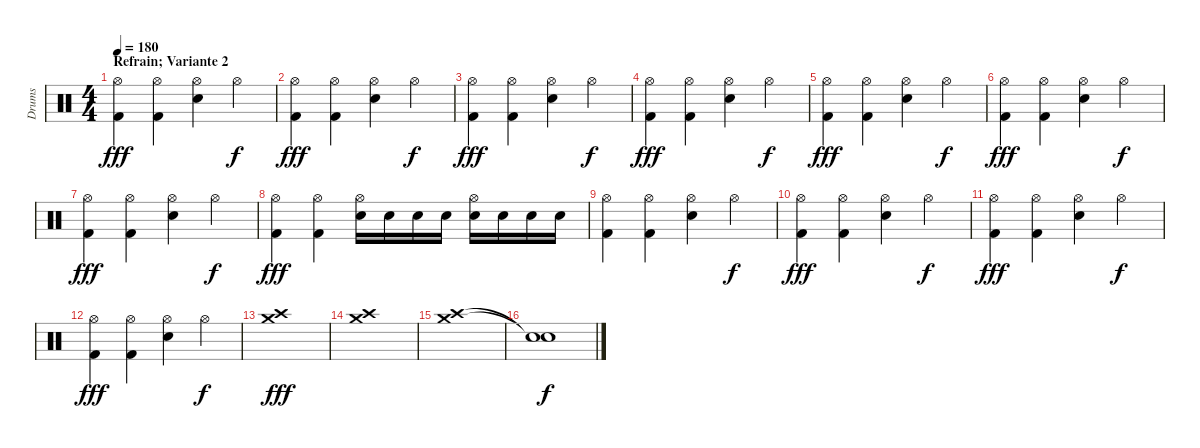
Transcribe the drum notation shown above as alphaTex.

\track ("Drums" "Drums") {instrument percussion}
\staff {score}
\articulation defaults
\ts (4 4)
\section ("" "Refrain; Variante 2")
\tempo 180
\clef neutral
\ks c
("Hi-Hat (open)" "Kick (hit) 2").4{dy fff} ("Hi-Hat (open)" "Kick (hit) 2").4 ("Hi-Hat (open)" "Electric Snare (hit)").4 "Hi-Hat (open)".4{dy f} |
("Hi-Hat (open)" "Kick (hit) 2").4{dy fff} ("Hi-Hat (open)" "Kick (hit) 2").4 ("Hi-Hat (open)" "Electric Snare (hit)").4 "Hi-Hat (open)".4{dy f} |
("Hi-Hat (open)" "Kick (hit) 2").4{dy fff} ("Hi-Hat (open)" "Kick (hit) 2").4 ("Hi-Hat (open)" "Electric Snare (hit)").4 "Hi-Hat (open)".4{dy f} |
("Hi-Hat (open)" "Kick (hit) 2").4{dy fff} ("Hi-Hat (open)" "Kick (hit) 2").4 ("Hi-Hat (open)" "Electric Snare (hit)").4 "Hi-Hat (open)".4{dy f} |
("Hi-Hat (open)" "Kick (hit) 2").4{dy fff} ("Hi-Hat (open)" "Kick (hit) 2").4 ("Hi-Hat (open)" "Electric Snare (hit)").4 "Hi-Hat (open)".4{dy f} |
("Hi-Hat (open)" "Kick (hit) 2").4{dy fff} ("Hi-Hat (open)" "Kick (hit) 2").4 ("Hi-Hat (open)" "Electric Snare (hit)").4 "Hi-Hat (open)".4{dy f} |
("Hi-Hat (open)" "Kick (hit) 2").4{dy fff} ("Hi-Hat (open)" "Kick (hit) 2").4 ("Hi-Hat (open)" "Electric Snare (hit)").4 "Hi-Hat (open)".4{dy f} |
("Hi-Hat (open)" "Kick (hit) 2").4{dy fff} ("Hi-Hat (open)" "Kick (hit) 2").4 ("Hi-Hat (open)" "Electric Snare (hit)").16 "Electric Snare (hit)".16 "Electric Snare (hit)".16 "Electric Snare (hit)".16 ("Hi-Hat (open)" "Electric Snare (hit)").16 "Electric Snare (hit)".16 "Electric Snare (hit)".16 "Electric Snare (hit)".16 |
("Hi-Hat (open)" "Kick (hit) 2").4 ("Hi-Hat (open)" "Kick (hit) 2").4 ("Hi-Hat (open)" "Electric Snare (hit)").4 "Hi-Hat (open)".4{dy f} |
("Hi-Hat (open)" "Kick (hit) 2").4{dy fff} ("Hi-Hat (open)" "Kick (hit) 2").4 ("Hi-Hat (open)" "Electric Snare (hit)").4 "Hi-Hat (open)".4{dy f} |
("Hi-Hat (open)" "Kick (hit) 2").4{dy fff} ("Hi-Hat (open)" "Kick (hit) 2").4 ("Hi-Hat (open)" "Electric Snare (hit)").4 "Hi-Hat (open)".4{dy f} |
("Hi-Hat (open)" "Kick (hit) 2").4{dy fff} ("Hi-Hat (open)" "Kick (hit) 2").4 ("Hi-Hat (open)" "Electric Snare (hit)").4 "Hi-Hat (open)".4{dy f} |
("Crash medium (hit)" "Crash high (hit)").1{dy fff} |
("Crash medium (hit)" "Crash high (hit)").1 |
("Crash medium (hit)" "Crash high (hit)").1 |
("Snare (hit)"{t} "Snare (hit)"{t}).1{dy f}
